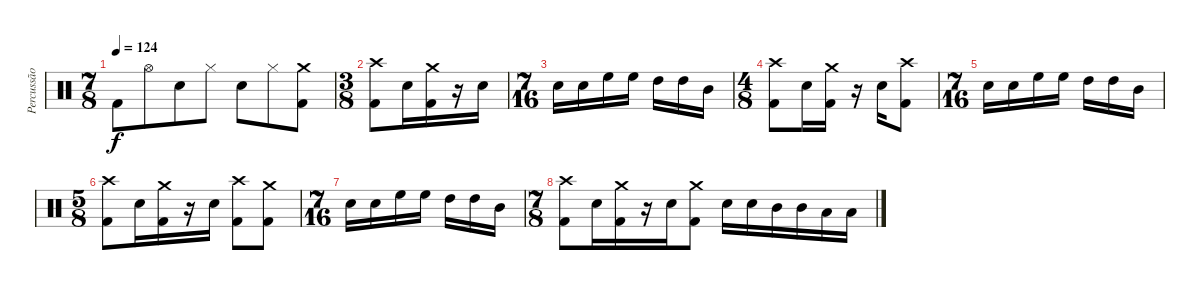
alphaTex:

\track ("Percussão" "Percussão") {instrument percussion}
\staff {score}
\articulation defaults
\ts (7 8)
\tempo 124
\clef neutral
\ks c "Kick (hit) 2".8{dy f} "Hi-Hat (open)".8 "Snare (hit) 2".8 "Hi-Hat (closed)".8 "Snare (hit) 2".8 "Hi-Hat (closed)".8
("Crash medium (hit)" "Kick (hit) 2").8 |
\ts (3 8)
("Crash high (hit)" "Kick (hit) 2").8 "Snare (hit) 2".16 ("Crash medium (hit)" "Kick (hit) 2").16 r.16 "Snare (hit) 2".16 |
\ts (7 16)
"Snare (hit) 2".16 "Snare (hit) 2".16 "High Floor Tom (hit)".16 "High Floor Tom (hit)".16 "High Tom (hit)".16 "High Tom (hit)".16 "Mid Tom (hit)".16 |
\ts (4 8)
("Crash high (hit)" "Kick (hit) 2").8 "Snare (hit) 2".16 ("Crash medium (hit)" "Kick (hit) 2").16 r.16 "Snare (hit) 2".16 ("Crash high (hit)" "Kick (hit) 2").8 |
\ts (7 16)
"Snare (hit) 2".16 "Snare (hit) 2".16 "High Floor Tom (hit)".16 "High Floor Tom (hit)".16 "High Tom (hit)".16 "High Tom (hit)".16 "Mid Tom (hit)".16 |
\ts (5 8)
("Crash high (hit)" "Kick (hit) 2").8 "Snare (hit) 2".16 ("Crash medium (hit)" "Kick (hit) 2").16 r.16 "Snare (hit) 2".16 ("Crash high (hit)" "Kick (hit) 2").8 ("Crash medium (hit)" "Kick (hit) 2").8 |
\ts (7 16)
"Snare (hit) 2".16 "Snare (hit) 2".16 "High Floor Tom (hit)".16 "High Floor Tom (hit)".16 "High Tom (hit)".16 "High Tom (hit)".16 "Mid Tom (hit)".16 |
\ts (7 8)
("Crash high (hit)" "Kick (hit) 2").8 "Snare (hit) 2".16 ("Crash medium (hit)" "Kick (hit) 2").16 r.16 "Snare (hit) 2".16 ("Crash medium (hit)" "Kick (hit) 2").8 "Snare (hit) 2".16 "Snare (hit) 2".16 "Mid Tom (hit)".16 "Mid Tom (hit)".16 "Low Tom (hit)".16 "Low Tom (hit)".16
